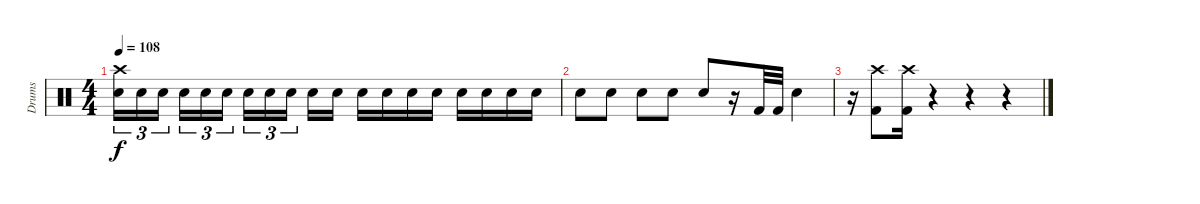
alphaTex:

\track ("Drums" "Drums") {instrument percussion}
\staff {score}
\articulation defaults
\ts (4 4)
\tempo 108
\clef neutral
\ks c
("Crash high (hit)" "Electric Snare (hit)").16{tu (3 2) dy f} "Electric Snare (hit)".16{tu (3 2)} "Electric Snare (hit)".16{tu (3 2)} "Electric Snare (hit)".16{tu (3 2)} "Electric Snare (hit)".16{tu (3 2)} "Electric Snare (hit)".16{tu (3 2)} "Electric Snare (hit)".16{tu (3 2)} "Electric Snare (hit)".16{tu (3 2)} "Electric Snare (hit)".16{tu (3 2)} "Electric Snare (hit)".16 "Electric Snare (hit)".16 "Electric Snare (hit)".16 "Electric Snare (hit)".16 "Electric Snare (hit)".16 "Electric Snare (hit)".16 "Electric Snare (hit)".16 "Electric Snare (hit)".16 "Electric Snare (hit)".16 "Electric Snare (hit)".16 |
"Electric Snare (hit)".8 "Electric Snare (hit)".8 "Electric Snare (hit)".8 "Electric Snare (hit)".8 "Electric Snare (hit)".8 r.16 "Kick (hit) 2".32 "Kick (hit) 2".32 "Electric Snare (hit)".4 |
r.16 ("Crash high (hit)" "Kick (hit) 2").8 ("Crash high (hit)" "Kick (hit) 2").16 r.4 r.4 r.4
